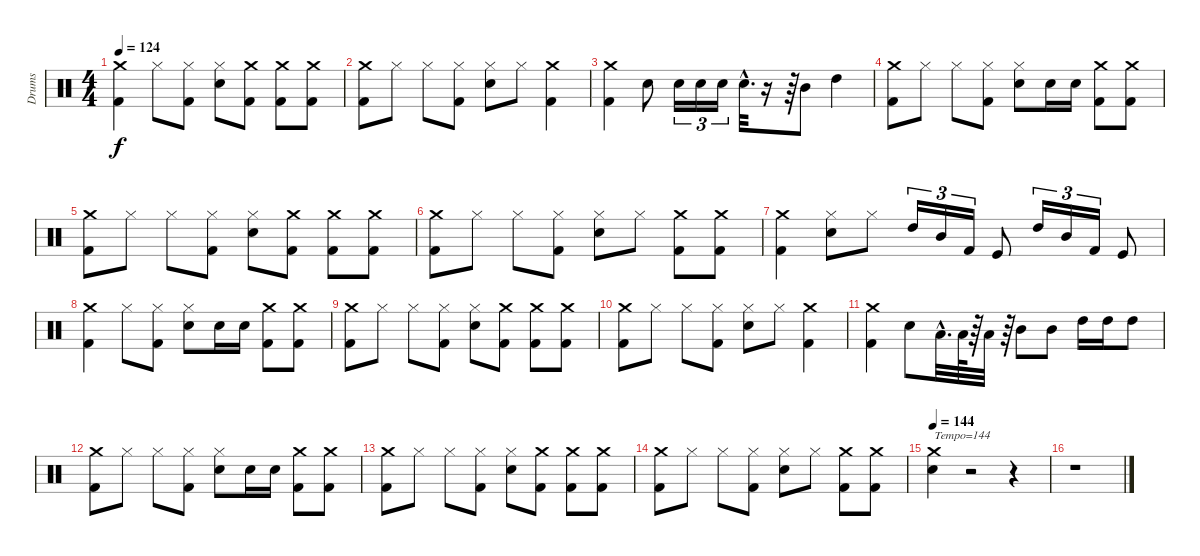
\track ("Drums" "Drums") {instrument percussion}
\staff {score}
\articulation defaults
\ts (4 4)
\tempo 124
\clef neutral
\ks c
("Kick (hit) 2" "Crash medium (hit)").4{dy f} "Hi-Hat (closed)".8 ("Kick (hit) 2" "Hi-Hat (closed)").8 ("Hi-Hat (closed)" "Snare (hit) 2").8 ("Kick (hit) 2" "Crash medium (hit)").8 ("Kick (hit) 2" "Crash medium (hit)").8 ("Kick (hit) 2" "Crash medium (hit)").8 |
("Kick (hit) 2" "Crash medium (hit)").8 "Hi-Hat (closed)".8 "Hi-Hat (closed)".8 ("Kick (hit) 2" "Hi-Hat (closed)").8 ("Snare (hit) 2" "Hi-Hat (closed)").8 "Hi-Hat (closed)".8 ("Kick (hit) 2" "Crash medium (hit)").4 |
("Kick (hit) 2" "Crash medium (hit)").4 "Snare (hit) 2".8 "Snare (hit) 2".16{tu (3 2)} "Snare (hit) 2".16{tu (3 2)} "Snare (hit) 2".16{tu (3 2)} "Snare (hit) 2"{hac}.32{d} r.16 r.64 "Mid Tom (hit)".8 "High Tom (hit)".4 |
("Kick (hit) 2" "Crash medium (hit)").8 "Hi-Hat (closed)".8 "Hi-Hat (closed)".8 ("Kick (hit) 2" "Hi-Hat (closed)").8 ("Snare (hit) 2" "Hi-Hat (closed)").8 "Snare (hit) 2".16 "Snare (hit) 2".16 ("Kick (hit) 2" "Crash medium (hit)").8 ("Kick (hit) 2" "Crash medium (hit)").8 |
("Kick (hit) 2" "Crash medium (hit)").8 "Hi-Hat (closed)".8 "Hi-Hat (closed)".8 ("Kick (hit) 2" "Hi-Hat (closed)").8 ("Snare (hit) 2" "Hi-Hat (closed)").8 ("Kick (hit) 2" "Crash medium (hit)").8 ("Kick (hit) 2" "Crash medium (hit)").8 ("Kick (hit) 2" "Crash medium (hit)").8 |
("Kick (hit) 2" "Crash medium (hit)").8 "Hi-Hat (closed)".8 "Hi-Hat (closed)".8 ("Kick (hit) 2" "Hi-Hat (closed)").8 ("Snare (hit) 2" "Hi-Hat (closed)").8 "Hi-Hat (closed)".8 ("Kick (hit) 2" "Crash medium (hit)").8 ("Kick (hit) 2" "Crash medium (hit)").8 |
("Kick (hit) 2" "Crash medium (hit)").4 ("Hi-Hat (closed)" "Snare (hit) 2").8 "Hi-Hat (closed)".8 "High Tom (hit)".16{tu (3 2)} "Mid Tom (hit)".16{tu (3 2)} "Kick (hit) 2".16{tu (3 2)} "Kick (hit)".8 "High Tom (hit)".16{tu (3 2)} "Mid Tom (hit)".16{tu (3 2)} "Kick (hit) 2".16{tu (3 2)} "Kick (hit)".8 |
("Kick (hit) 2" "Crash medium (hit)").4 "Hi-Hat (closed)".8 ("Kick (hit) 2" "Hi-Hat (closed)").8 ("Snare (hit) 2" "Hi-Hat (closed)").8 "Snare (hit) 2".16 "Snare (hit) 2".16 ("Crash medium (hit)" "Kick (hit) 2").8 ("Crash medium (hit)" "Kick (hit) 2").8 |
("Kick (hit) 2" "Crash medium (hit)").8 "Hi-Hat (closed)".8 "Hi-Hat (closed)".8 ("Kick (hit) 2" "Hi-Hat (closed)").8 ("Snare (hit) 2" "Hi-Hat (closed)").8 ("Kick (hit) 2" "Crash medium (hit)").8 ("Kick (hit) 2" "Crash medium (hit)").8 ("Kick (hit) 2" "Crash medium (hit)").8 |
("Kick (hit) 2" "Crash medium (hit)").8 "Hi-Hat (closed)".8 "Hi-Hat (closed)".8 ("Kick (hit) 2" "Hi-Hat (closed)").8 ("Snare (hit) 2" "Hi-Hat (closed)").8 "Hi-Hat (closed)".8 ("Crash medium (hit)" "Kick (hit) 2").4 |
("Kick (hit) 2" "Crash medium (hit)").4 "Snare (hit) 2".8 "Low Tom (hit)"{hac}.32{d} "Low Tom (hit)".64 r.64 "Low Tom (hit)".32 r.64 "Mid Tom (hit)".8 "Mid Tom (hit)".8 "High Tom (hit)".16 "High Tom (hit)".16 "High Tom (hit)".8 |
("Kick (hit) 2" "Crash medium (hit)").8 "Hi-Hat (closed)".8 "Hi-Hat (closed)".8 ("Kick (hit) 2" "Hi-Hat (closed)").8 ("Snare (hit) 2" "Hi-Hat (closed)").8 "Snare (hit) 2".16 "Snare (hit) 2".16 ("Kick (hit) 2" "Crash medium (hit)").8 ("Kick (hit) 2" "Crash medium (hit)").8 |
("Crash medium (hit)" "Kick (hit) 2").8 "Hi-Hat (closed)".8 "Hi-Hat (closed)".8 ("Kick (hit) 2" "Hi-Hat (closed)").8 ("Snare (hit) 2" "Hi-Hat (closed)").8 ("Kick (hit) 2" "Crash medium (hit)").8 ("Kick (hit) 2" "Crash medium (hit)").8 ("Kick (hit) 2" "Crash medium (hit)").8 |
("Crash medium (hit)" "Kick (hit) 2").8 "Hi-Hat (closed)".8 "Hi-Hat (closed)".8 ("Kick (hit) 2" "Hi-Hat (closed)").8 ("Snare (hit) 2" "Hi-Hat (closed)").8 "Hi-Hat (closed)".8 ("Kick (hit) 2" "Crash medium (hit)").8 ("Kick (hit) 2" "Crash medium (hit)").8 |
\tempo 144
("Snare (hit)" "Crash medium (hit)").4{txt "Tempo=144"} r.2 r.4 |
r.1
